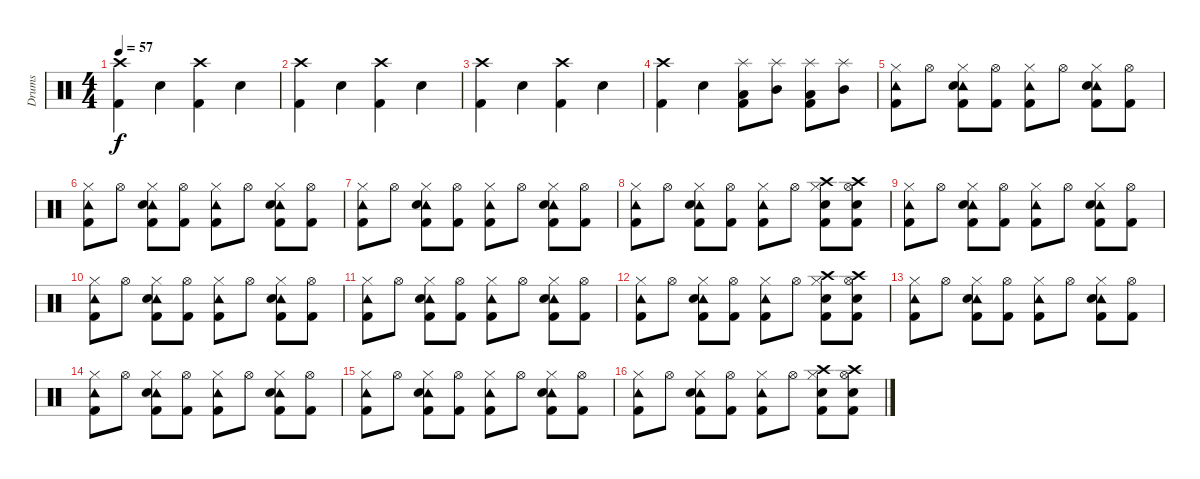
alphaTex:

\track ("Drums" "Drums") {instrument percussion}
\staff {score}
\articulation defaults
\ts (4 4)
\tempo 57
\clef neutral
\ks c
("Crash high (hit)" "Kick (hit) 2").4{dy f} "Snare (hit) 2".4 ("Crash high (hit)" "Kick (hit) 2").4 "Snare (hit) 2".4 |
("Crash high (hit)" "Kick (hit) 2").4 "Snare (hit) 2".4 ("Crash high (hit)" "Kick (hit) 2").4 "Snare (hit) 2".4 |
("Crash high (hit)" "Kick (hit) 2").4 "Snare (hit) 2".4 ("Crash high (hit)" "Kick (hit) 2").4 "Snare (hit) 2".4 |
("Crash high (hit)" "Kick (hit) 2").4 "Snare (hit) 2".4 ("Low Tom (hit)" "Splash (hit)" "Kick (hit) 2").8 ("Mid Tom (hit)" "Splash (hit)").8 ("Low Tom (hit)" "Splash (hit)" "Kick (hit) 2").8 ("Mid Tom (hit)" "Splash (hit)").8 |
("Tambourine (hit)" "Hi-Hat (closed)" "Kick (hit) 2").8 "Hi-Hat (open)".8 ("Tambourine (hit)" "Electric Snare (hit)" "Hi-Hat (closed)" "Kick (hit) 2").8 ("Hi-Hat (open)" "Kick (hit) 2").8 ("Tambourine (hit)" "Hi-Hat (closed)" "Kick (hit) 2").8 "Hi-Hat (open)".8 ("Tambourine (hit)" "Electric Snare (hit)" "Hi-Hat (closed)" "Kick (hit) 2").8 ("Hi-Hat (open)" "Kick (hit) 2").8 |
("Hi-Hat (closed)" "Tambourine (hit)" "Kick (hit) 2").8 "Hi-Hat (open)".8 ("Tambourine (hit)" "Electric Snare (hit)" "Hi-Hat (closed)" "Kick (hit) 2").8 ("Hi-Hat (open)" "Kick (hit) 2").8 ("Tambourine (hit)" "Hi-Hat (closed)" "Kick (hit) 2").8 "Hi-Hat (open)".8 ("Tambourine (hit)" "Electric Snare (hit)" "Hi-Hat (closed)" "Kick (hit) 2").8 ("Hi-Hat (open)" "Kick (hit) 2").8 |
("Hi-Hat (closed)" "Tambourine (hit)" "Kick (hit) 2").8 "Hi-Hat (open)".8 ("Tambourine (hit)" "Electric Snare (hit)" "Hi-Hat (closed)" "Kick (hit) 2").8 ("Hi-Hat (open)" "Kick (hit) 2").8 ("Tambourine (hit)" "Hi-Hat (closed)" "Kick (hit) 2").8 "Hi-Hat (open)".8 ("Tambourine (hit)" "Electric Snare (hit)" "Hi-Hat (closed)" "Kick (hit) 2").8 ("Hi-Hat (open)" "Kick (hit) 2").8 |
("Tambourine (hit)" "Hi-Hat (closed)" "Kick (hit) 2").8 "Hi-Hat (open)".8 ("Tambourine (hit)" "Electric Snare (hit)" "Hi-Hat (closed)" "Kick (hit) 2").8 ("Hi-Hat (open)" "Kick (hit) 2").8 ("Tambourine (hit)" "Hi-Hat (closed)" "Kick (hit) 2").8 "Hi-Hat (open)".8 ("Crash high (hit)" "Electric Snare (hit)" "Hi-Hat (closed)" "Kick (hit) 2").8 ("Electric Snare (hit)" "Crash high (hit)" "Hi-Hat (open)" "Kick (hit) 2").8 |
("Tambourine (hit)" "Hi-Hat (closed)" "Kick (hit) 2").8 "Hi-Hat (open)".8 ("Tambourine (hit)" "Electric Snare (hit)" "Hi-Hat (closed)" "Kick (hit) 2").8 ("Hi-Hat (open)" "Kick (hit) 2").8 ("Tambourine (hit)" "Hi-Hat (closed)" "Kick (hit) 2").8 "Hi-Hat (open)".8 ("Tambourine (hit)" "Electric Snare (hit)" "Hi-Hat (closed)" "Kick (hit) 2").8 ("Hi-Hat (open)" "Kick (hit) 2").8 |
("Hi-Hat (closed)" "Tambourine (hit)" "Kick (hit) 2").8 "Hi-Hat (open)".8 ("Tambourine (hit)" "Electric Snare (hit)" "Hi-Hat (closed)" "Kick (hit) 2").8 ("Hi-Hat (open)" "Kick (hit) 2").8 ("Tambourine (hit)" "Hi-Hat (closed)" "Kick (hit) 2").8 "Hi-Hat (open)".8 ("Tambourine (hit)" "Electric Snare (hit)" "Hi-Hat (closed)" "Kick (hit) 2").8 ("Hi-Hat (open)" "Kick (hit) 2").8 |
("Hi-Hat (closed)" "Tambourine (hit)" "Kick (hit) 2").8 "Hi-Hat (open)".8 ("Tambourine (hit)" "Electric Snare (hit)" "Hi-Hat (closed)" "Kick (hit) 2").8 ("Hi-Hat (open)" "Kick (hit) 2").8 ("Tambourine (hit)" "Hi-Hat (closed)" "Kick (hit) 2").8 "Hi-Hat (open)".8 ("Tambourine (hit)" "Electric Snare (hit)" "Hi-Hat (closed)" "Kick (hit) 2").8 ("Hi-Hat (open)" "Kick (hit) 2").8 |
("Tambourine (hit)" "Hi-Hat (closed)" "Kick (hit) 2").8 "Hi-Hat (open)".8 ("Tambourine (hit)" "Electric Snare (hit)" "Hi-Hat (closed)" "Kick (hit) 2").8 ("Hi-Hat (open)" "Kick (hit) 2").8 ("Tambourine (hit)" "Hi-Hat (closed)" "Kick (hit) 2").8 "Hi-Hat (open)".8 ("Crash high (hit)" "Electric Snare (hit)" "Hi-Hat (closed)" "Kick (hit) 2").8 ("Electric Snare (hit)" "Crash high (hit)" "Hi-Hat (open)" "Kick (hit) 2").8 |
("Tambourine (hit)" "Hi-Hat (closed)" "Kick (hit) 2").8 "Hi-Hat (open)".8 ("Tambourine (hit)" "Electric Snare (hit)" "Hi-Hat (closed)" "Kick (hit) 2").8 ("Hi-Hat (open)" "Kick (hit) 2").8 ("Tambourine (hit)" "Hi-Hat (closed)" "Kick (hit) 2").8 "Hi-Hat (open)".8 ("Tambourine (hit)" "Electric Snare (hit)" "Hi-Hat (closed)" "Kick (hit) 2").8 ("Hi-Hat (open)" "Kick (hit) 2").8 |
("Hi-Hat (closed)" "Tambourine (hit)" "Kick (hit) 2").8 "Hi-Hat (open)".8 ("Tambourine (hit)" "Electric Snare (hit)" "Hi-Hat (closed)" "Kick (hit) 2").8 ("Hi-Hat (open)" "Kick (hit) 2").8 ("Tambourine (hit)" "Hi-Hat (closed)" "Kick (hit) 2").8 "Hi-Hat (open)".8 ("Tambourine (hit)" "Electric Snare (hit)" "Hi-Hat (closed)" "Kick (hit) 2").8 ("Hi-Hat (open)" "Kick (hit) 2").8 |
("Hi-Hat (closed)" "Tambourine (hit)" "Kick (hit) 2").8 "Hi-Hat (open)".8 ("Tambourine (hit)" "Electric Snare (hit)" "Hi-Hat (closed)" "Kick (hit) 2").8 ("Hi-Hat (open)" "Kick (hit) 2").8 ("Tambourine (hit)" "Hi-Hat (closed)" "Kick (hit) 2").8 "Hi-Hat (open)".8 ("Tambourine (hit)" "Electric Snare (hit)" "Hi-Hat (closed)" "Kick (hit) 2").8 ("Hi-Hat (open)" "Kick (hit) 2").8 |
("Tambourine (hit)" "Hi-Hat (closed)" "Kick (hit) 2").8 "Hi-Hat (open)".8 ("Tambourine (hit)" "Electric Snare (hit)" "Hi-Hat (closed)" "Kick (hit) 2").8 ("Hi-Hat (open)" "Kick (hit) 2").8 ("Tambourine (hit)" "Hi-Hat (closed)" "Kick (hit) 2").8 "Hi-Hat (open)".8 ("Crash high (hit)" "Electric Snare (hit)" "Hi-Hat (closed)" "Kick (hit) 2").8 ("Electric Snare (hit)" "Crash high (hit)" "Hi-Hat (open)" "Kick (hit) 2").8
